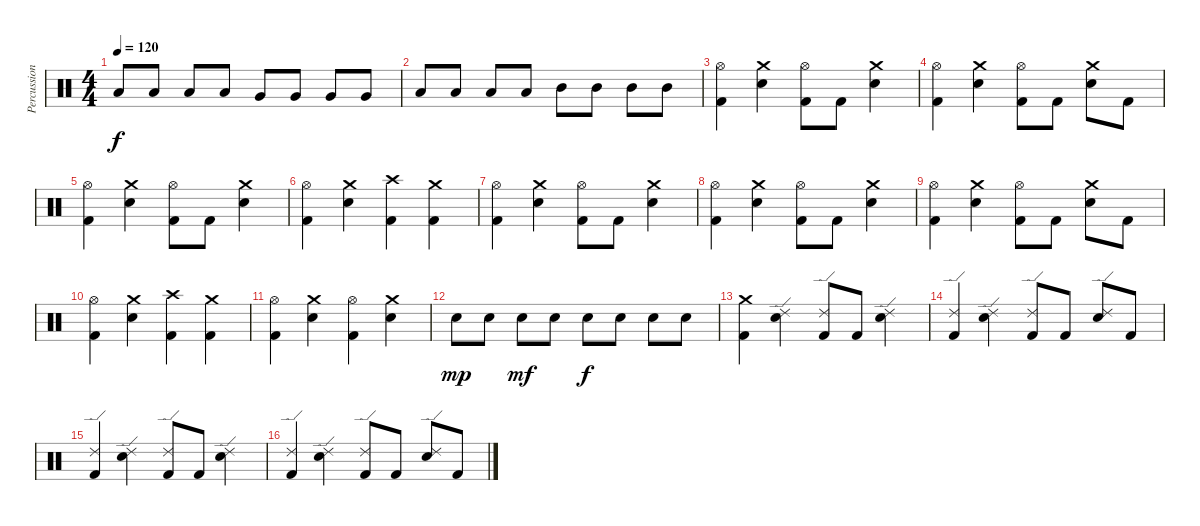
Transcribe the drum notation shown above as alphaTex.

\track ("Percussion" "Percussion") {instrument percussion}
\staff {score}
\articulation defaults
\ts (4 4)
\tempo 120
\clef neutral
\ks c "Low Tom (hit)".8{dy f} "Low Tom (hit)".8 "Low Tom (hit)".8 "Low Tom (hit)".8 "Very Low Tom (hit)".8 "Very Low Tom (hit)".8 "Very Low Tom (hit)".8 "Very Low Tom (hit)".8
|
"Low Tom (hit)".8 "Low Tom (hit)".8 "Low Tom (hit)".8 "Low Tom (hit)".8 "Mid Tom (hit)".8 "Mid Tom (hit)".8 "Mid Tom (hit)".8 "Mid Tom (hit)".8 |
("Hi-Hat (open)" "Kick (hit) 2").4 ("Crash medium (hit)" "Snare (hit) 2").4 ("Hi-Hat (open)" "Kick (hit) 2").8 "Kick (hit) 2".8 ("Crash medium (hit)" "Snare (hit) 2").4 |
("Hi-Hat (open)" "Kick (hit) 2").4 ("Crash medium (hit)" "Snare (hit) 2").4 ("Hi-Hat (open)" "Kick (hit) 2").8 "Kick (hit) 2".8 ("Crash medium (hit)" "Snare (hit) 2").8 "Kick (hit) 2".8 |
("Hi-Hat (open)" "Kick (hit) 2").4 ("Crash medium (hit)" "Snare (hit) 2").4 ("Hi-Hat (open)" "Kick (hit) 2").8 "Kick (hit) 2".8 ("Crash medium (hit)" "Snare (hit) 2").4 |
("Hi-Hat (open)" "Kick (hit) 2").4 ("Crash medium (hit)" "Snare (hit) 2").4 ("Crash high (hit)" "Kick (hit) 2").4 ("Crash medium (hit)" "Kick (hit) 2").4 |
("Hi-Hat (open)" "Kick (hit) 2").4 ("Crash medium (hit)" "Snare (hit) 2").4 ("Hi-Hat (open)" "Kick (hit) 2").8 "Kick (hit) 2".8 ("Crash medium (hit)" "Snare (hit) 2").4 |
("Hi-Hat (open)" "Kick (hit) 2").4 ("Crash medium (hit)" "Snare (hit) 2").4 ("Hi-Hat (open)" "Kick (hit) 2").8 "Kick (hit) 2".8 ("Crash medium (hit)" "Snare (hit) 2").4 |
("Hi-Hat (open)" "Kick (hit) 2").4 ("Crash medium (hit)" "Snare (hit) 2").4 ("Hi-Hat (open)" "Kick (hit) 2").8 "Kick (hit) 2".8 ("Crash medium (hit)" "Snare (hit) 2").8 "Kick (hit) 2".8 |
("Hi-Hat (open)" "Kick (hit) 2").4 ("Crash medium (hit)" "Snare (hit) 2").4 ("Crash high (hit)" "Kick (hit) 2").4 ("Crash medium (hit)" "Kick (hit) 2").4 |
("Hi-Hat (open)" "Kick (hit) 2").4 ("Crash medium (hit)" "Snare (hit) 2").4 ("Hi-Hat (open)" "Kick (hit) 2").4 ("Crash medium (hit)" "Snare (hit) 2").4 |
"Snare (hit) 2".8{dy mp} "Snare (hit) 2".8 "Snare (hit) 2".8{dy mf} "Snare (hit) 2".8 "Snare (hit) 2".8{dy f} "Snare (hit) 2".8 "Snare (hit) 2".8 "Snare (hit) 2".8 |
("Crash medium (hit)" "Kick (hit) 2").4 ("Ride (edge) 2" "Snare (hit) 2").4 ("Ride (edge) 2" "Kick (hit) 2").8 "Kick (hit) 2".8 ("Ride (edge) 2" "Snare (hit) 2").4 |
("Ride (edge) 2" "Kick (hit) 2").4 ("Ride (edge) 2" "Snare (hit) 2").4 ("Ride (edge) 2" "Kick (hit) 2").8 "Kick (hit) 2".8 ("Ride (edge) 2" "Snare (hit) 2").8 "Kick (hit) 2".8 |
("Ride (edge) 2" "Kick (hit) 2").4 ("Ride (edge) 2" "Snare (hit) 2").4 ("Ride (edge) 2" "Kick (hit) 2").8 "Kick (hit) 2".8 ("Ride (edge) 2" "Snare (hit) 2").4 |
("Ride (edge) 2" "Kick (hit) 2").4 ("Ride (edge) 2" "Snare (hit) 2").4 ("Ride (edge) 2" "Kick (hit) 2").8 "Kick (hit) 2".8 ("Ride (edge) 2" "Snare (hit) 2").8 "Kick (hit) 2".8
